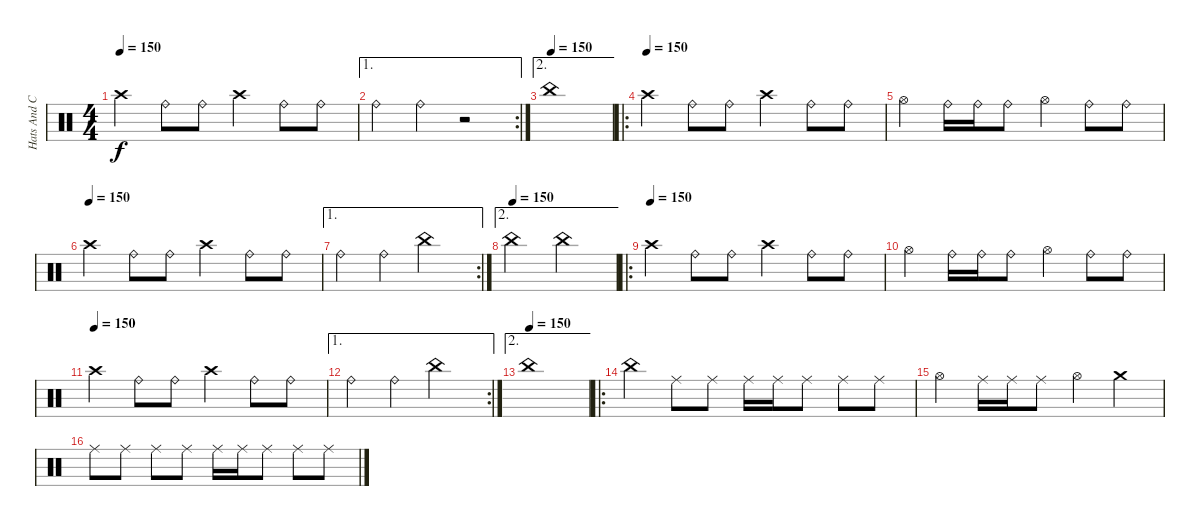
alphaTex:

\track ("Hats And Cymbals" "Hats And C") {instrument percussion}
\staff {score}
\articulation defaults
\ts (4 4)
\tempo 150
\clef neutral
\ks c "Crash high (hit)".4{dy f} "Ride (bell)".8 "Ride (bell)".8 "Crash high (hit)".4 "Ride (bell)".8 "Ride (bell)".8
|
\ae 1
\rc 2 "Ride (bell)".4 "Ride (bell)".4
r.2 |
\ae 2
\tempo (150)
"China (hit)".1 |
\ro
\tempo (150)
"Crash high (hit)".4 "Ride (bell)".8 "Ride (bell)".8 "Crash high (hit)".4 "Ride (bell)".8 "Ride (bell)".8 |
"Hi-Hat (open)".4 "Ride (bell)".16 "Ride (bell)".16 "Ride (bell)".8 "Hi-Hat (open)".4 "Ride (bell)".8 "Ride (bell)".8 |
\tempo (150)
"Crash high (hit)".4 "Ride (bell)".8 "Ride (bell)".8 "Crash high (hit)".4 "Ride (bell)".8 "Ride (bell)".8 |
\ae 1
\rc 2 "Ride (bell)".4 "Ride (bell)".4 "China (hit)".2
|
\ae 2
\tempo (150)
"China (hit)".2 "China (hit)".2 |
\ro
\tempo (150)
"Crash high (hit)".4 "Ride (bell)".8 "Ride (bell)".8 "Crash high (hit)".4 "Ride (bell)".8 "Ride (bell)".8 |
"Hi-Hat (open)".4 "Ride (bell)".16 "Ride (bell)".16 "Ride (bell)".8 "Hi-Hat (open)".4 "Ride (bell)".8 "Ride (bell)".8 |
\tempo (150)
"Crash high (hit)".4 "Ride (bell)".8 "Ride (bell)".8 "Crash high (hit)".4 "Ride (bell)".8 "Ride (bell)".8 |
\ae 1
\rc 2 "Ride (bell)".4 "Ride (bell)".4 "China (hit)".2
|
\ae 2
\tempo (150)
"China (hit)".1 |
\ro "China (hit)".4 "Ride (middle)".8 "Ride (middle)".8 "Ride (middle)".16 "Ride (middle)".16 "Ride (middle)".8 "Ride (middle)".8 "Ride (middle)".8
|
"Hi-Hat (open)".4 "Ride (middle)".16 "Ride (middle)".16 "Ride (middle)".8 "Hi-Hat (open)".4 "Crash medium (hit)".4 |
"Ride (middle)".8 "Ride (middle)".8 "Ride (middle)".8 "Ride (middle)".8 "Ride (middle)".16 "Ride (middle)".16 "Ride (middle)".8 "Ride (middle)".8 "Ride (middle)".8
